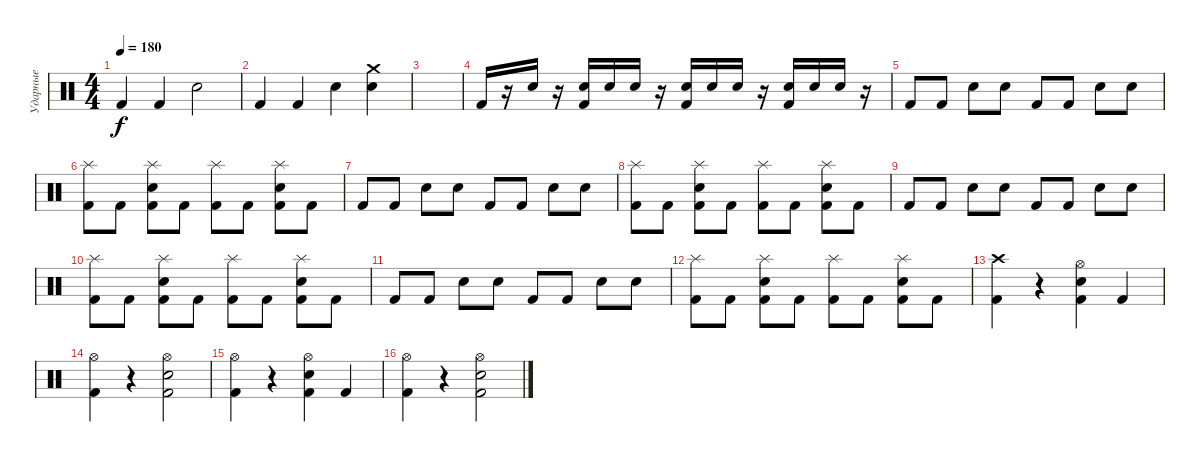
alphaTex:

\track ("Ударные" "Ударные") {instrument percussion}
\staff {score}
\articulation defaults
\ts (4 4)
\tempo 180
\clef neutral
\ks c "Kick (hit) 2".4{dy f} "Kick (hit) 2".4 "Electric Snare (hit)".2
|
"Kick (hit) 2".4 "Kick (hit) 2".4 "Electric Snare (hit)".4 ("Electric Snare (hit)" "Crash medium (hit)").4 |
|
"Kick (hit) 2".16 r.16 "Snare (hit) 2".16 r.16 ("Snare (hit) 2" "Kick (hit) 2").16 "Snare (hit) 2".16 "Snare (hit) 2".16 r.16 ("Snare (hit) 2" "Kick (hit) 2").16 "Snare (hit) 2".16 "Snare (hit) 2".16 r.16 ("Snare (hit) 2" "Kick (hit) 2").16 "Snare (hit) 2".16 "Snare (hit) 2".16 r.16 |
"Kick (hit) 2".8 "Kick (hit) 2".8 "Electric Snare (hit)".8 "Electric Snare (hit)".8 "Kick (hit) 2".8 "Kick (hit) 2".8 "Electric Snare (hit)".8 "Electric Snare (hit)".8 |
("Splash (hit)" "Kick (hit) 2").8 "Kick (hit) 2".8 ("Splash (hit)" "Kick (hit) 2" "Electric Snare (hit)").8 "Kick (hit) 2".8 ("Splash (hit)" "Kick (hit) 2").8 "Kick (hit) 2".8 ("Splash (hit)" "Kick (hit) 2" "Electric Snare (hit)").8 "Kick (hit) 2".8 |
"Kick (hit) 2".8 "Kick (hit) 2".8 "Electric Snare (hit)".8 "Electric Snare (hit)".8 "Kick (hit) 2".8 "Kick (hit) 2".8 "Electric Snare (hit)".8 "Electric Snare (hit)".8 |
("Splash (hit)" "Kick (hit) 2").8 "Kick (hit) 2".8 ("Splash (hit)" "Kick (hit) 2" "Electric Snare (hit)").8 "Kick (hit) 2".8 ("Splash (hit)" "Kick (hit) 2").8 "Kick (hit) 2".8 ("Splash (hit)" "Kick (hit) 2" "Electric Snare (hit)").8 "Kick (hit) 2".8 |
"Kick (hit) 2".8 "Kick (hit) 2".8 "Electric Snare (hit)".8 "Electric Snare (hit)".8 "Kick (hit) 2".8 "Kick (hit) 2".8 "Electric Snare (hit)".8 "Electric Snare (hit)".8 |
("Splash (hit)" "Kick (hit) 2").8 "Kick (hit) 2".8 ("Splash (hit)" "Kick (hit) 2" "Electric Snare (hit)").8 "Kick (hit) 2".8 ("Splash (hit)" "Kick (hit) 2").8 "Kick (hit) 2".8 ("Splash (hit)" "Kick (hit) 2" "Electric Snare (hit)").8 "Kick (hit) 2".8 |
"Kick (hit) 2".8 "Kick (hit) 2".8 "Electric Snare (hit)".8 "Electric Snare (hit)".8 "Kick (hit) 2".8 "Kick (hit) 2".8 "Electric Snare (hit)".8 "Electric Snare (hit)".8 |
("Splash (hit)" "Kick (hit) 2").8 "Kick (hit) 2".8 ("Splash (hit)" "Kick (hit) 2" "Electric Snare (hit)").8 "Kick (hit) 2".8 ("Splash (hit)" "Kick (hit) 2").8 "Kick (hit) 2".8 ("Splash (hit)" "Kick (hit) 2" "Electric Snare (hit)").8 "Kick (hit) 2".8 |
("Crash high (hit)" "Kick (hit) 2").4 r.4 ("Hi-Hat (open)" "Kick (hit) 2" "Electric Snare (hit)").4 "Kick (hit) 2".4 |
("Hi-Hat (open)" "Kick (hit) 2").4 r.4 ("Hi-Hat (open)" "Kick (hit) 2" "Electric Snare (hit)").2 |
("Hi-Hat (open)" "Kick (hit) 2").4 r.4 ("Hi-Hat (open)" "Kick (hit) 2" "Electric Snare (hit)").4 "Kick (hit) 2".4 |
("Hi-Hat (open)" "Kick (hit) 2").4 r.4 ("Hi-Hat (open)" "Kick (hit) 2" "Electric Snare (hit)").2
